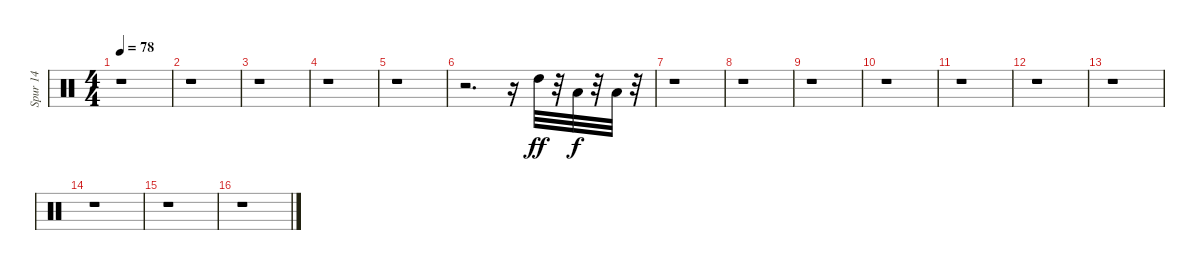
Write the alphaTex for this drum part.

\track ("Spur 14" "Spur 14") {instrument percussion}
\staff {score}
\articulation defaults
\ts (4 4)
\tempo 78
\clef neutral
\ks c
r.1{dy mf} |
r.1 |
r.1 |
r.1 |
r.1 |
r.2{d} r.16 "High Tom (hit)".32{dy ff} r.32 "Low Tom (hit)".32{dy f} r.32 "Low Floor Tom (hit)".32 r.32 |
r.1 |
r.1 |
r.1 |
r.1 |
r.1 |
r.1 |
r.1 |
r.1 |
r.1 |
r.1
